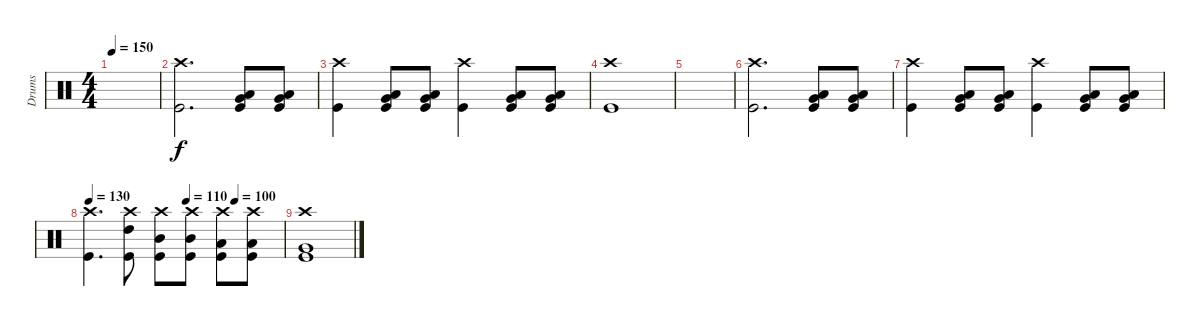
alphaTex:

\track ("Drums" "Drums") {instrument percussion}
\staff {score}
\articulation defaults
\ts (4 4)
\tempo 150
\clef neutral
\ks c
|
("Crash high (hit)" "Kick (hit)").2{d} ("Low Tom (hit)" "Very Low Tom (hit)" "Kick (hit)").8 ("Low Tom (hit)" "Very Low Tom (hit)" "Kick (hit)").8 |
("Crash high (hit)" "Kick (hit)").4 ("Low Tom (hit)" "Very Low Tom (hit)" "Kick (hit)").8 ("Low Tom (hit)" "Very Low Tom (hit)" "Kick (hit)").8 ("Crash high (hit)" "Kick (hit)").4 ("Low Tom (hit)" "Very Low Tom (hit)" "Kick (hit)").8 ("Low Tom (hit)" "Very Low Tom (hit)" "Kick (hit)").8 |
("Crash high (hit)" "Kick (hit)").1 |
|
("Crash high (hit)" "Kick (hit)").2{d} ("Low Tom (hit)" "Very Low Tom (hit)" "Kick (hit)").8 ("Low Tom (hit)" "Very Low Tom (hit)" "Kick (hit)").8 |
("Crash high (hit)" "Kick (hit)").4 ("Low Tom (hit)" "Very Low Tom (hit)" "Kick (hit)").8 ("Low Tom (hit)" "Very Low Tom (hit)" "Kick (hit)").8 ("Crash high (hit)" "Kick (hit)").4 ("Low Tom (hit)" "Very Low Tom (hit)" "Kick (hit)").8 ("Low Tom (hit)" "Very Low Tom (hit)" "Kick (hit)").8 |
\tempo 130
\tempo (110 0.5)
\tempo (100 0.75)
("Crash high (hit)" "Kick (hit)").4{d} ("Crash high (hit)" "High Tom (hit)" "Kick (hit)").8 ("Crash high (hit)" "Mid Tom (hit)" "Kick (hit)").8 ("Crash high (hit)" "Mid Tom (hit)" "Kick (hit)").8 ("Crash high (hit)" "Low Tom (hit)" "Kick (hit)").8 ("Crash high (hit)" "Low Tom (hit)" "Kick (hit)").8 |
("Crash high (hit)" "Very Low Tom (hit)" "Kick (hit)").1
